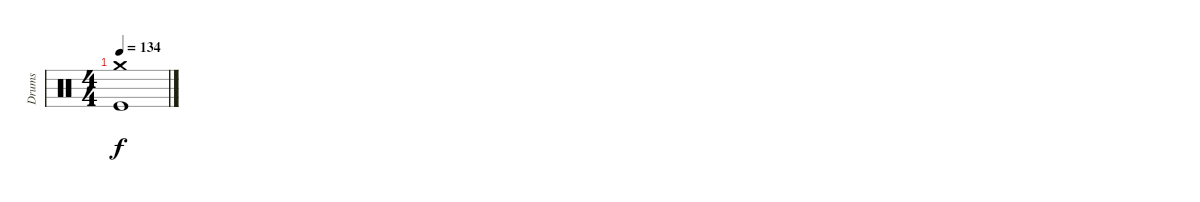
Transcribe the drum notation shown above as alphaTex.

\track ("Drums" "Drums") {instrument percussion}
\staff {score}
\articulation defaults
\ts (4 4)
\tempo 134
\clef neutral
\ks c
("Crash medium (hit)"{t} "Kick (hit)"{t}).1{dy f}
